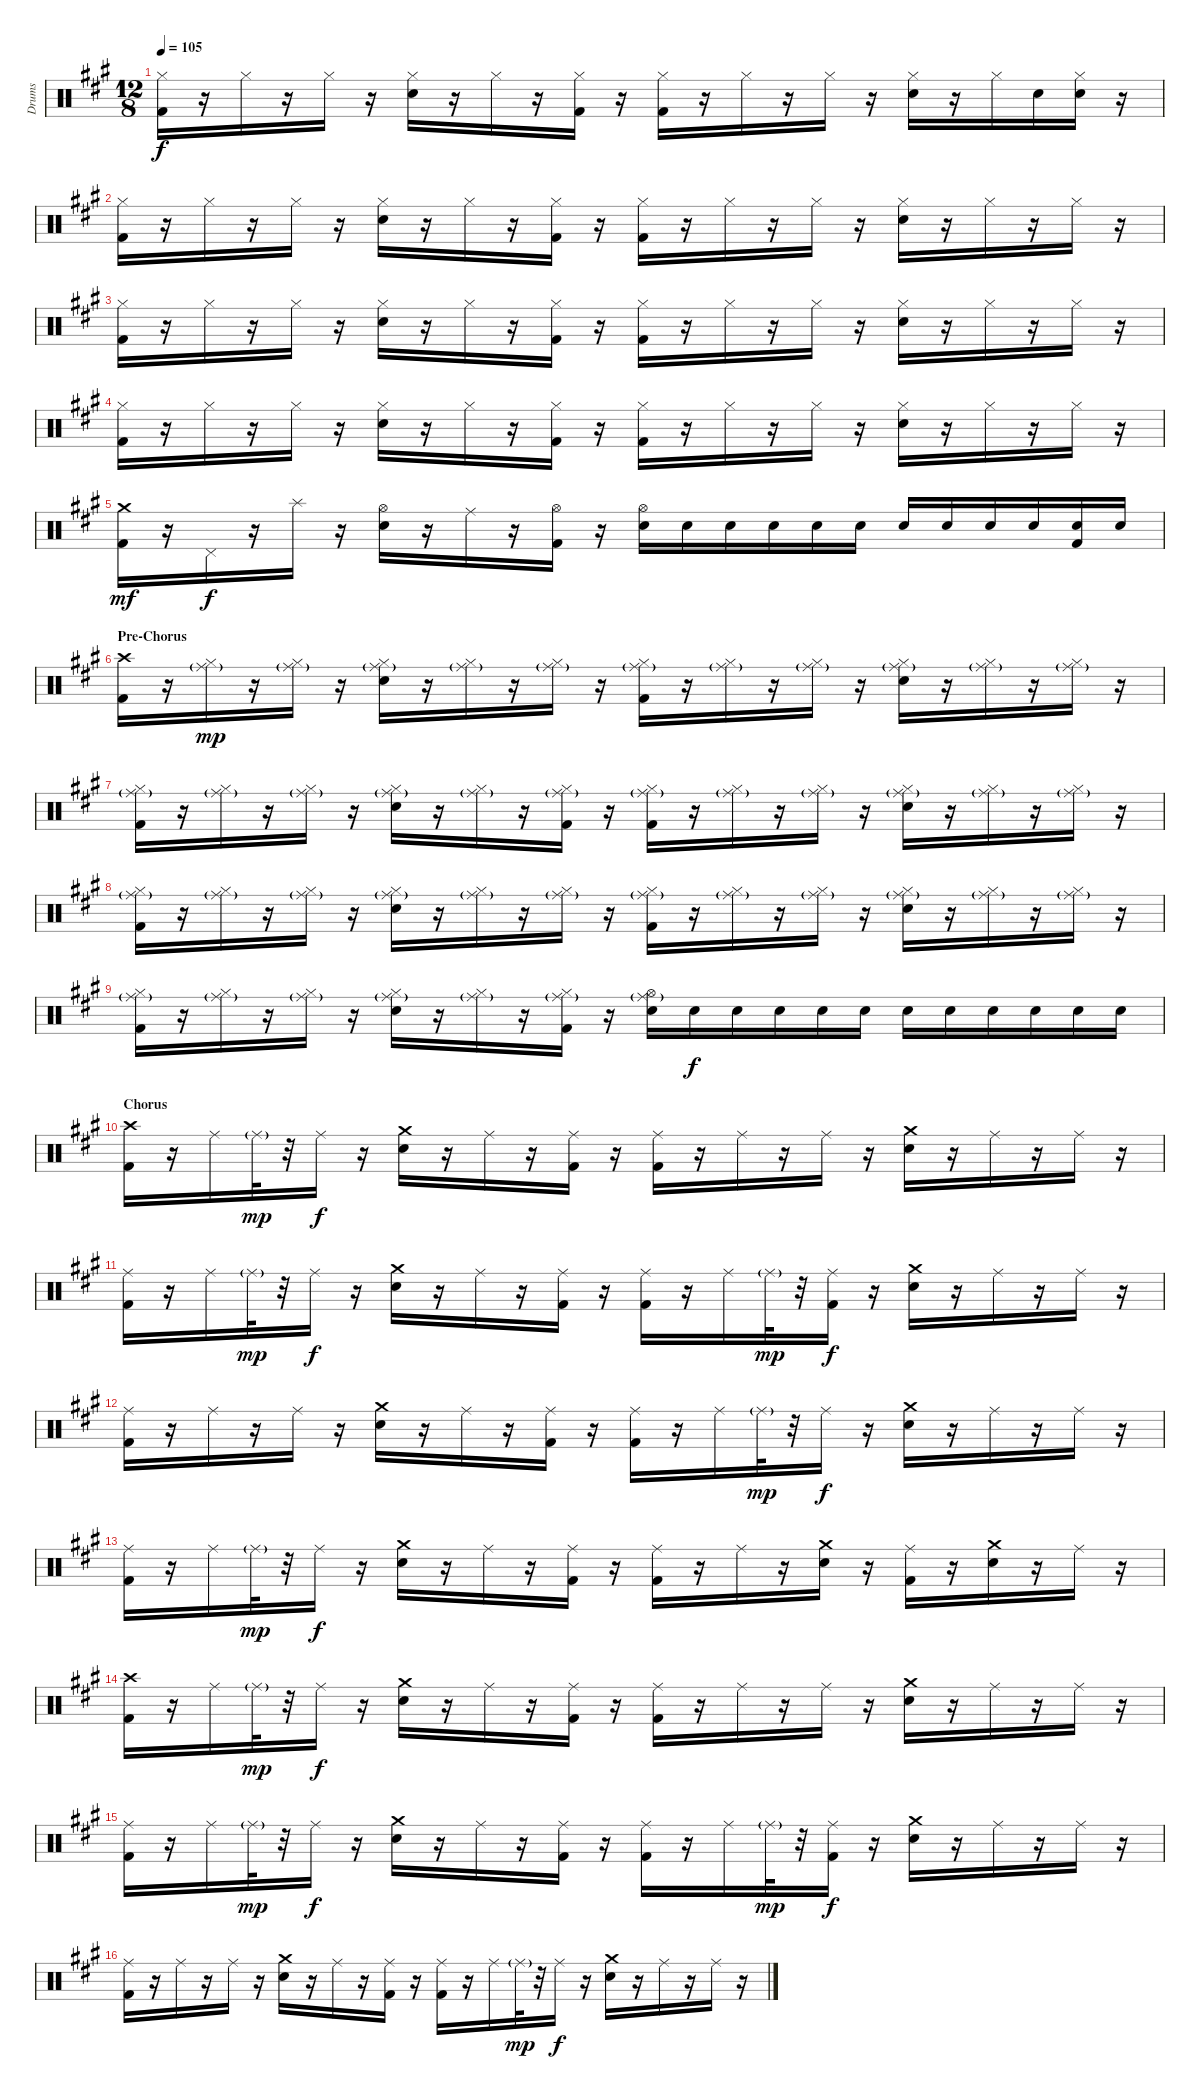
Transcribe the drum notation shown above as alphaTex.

\track ("Drums" "Drums") {instrument percussion}
\staff {score}
\articulation defaults
\ts (12 8)
\tempo 105
\clef neutral
\ks a
("Hi-Hat (closed)" "Kick (hit) 2").16{dy f} r.16 "Hi-Hat (closed)".16 r.16 "Hi-Hat (closed)".16 r.16 ("Hi-Hat (closed)" "Snare (hit) 2").16 r.16 "Hi-Hat (closed)".16 r.16 ("Hi-Hat (closed)" "Kick (hit) 2").16 r.16 ("Hi-Hat (closed)" "Kick (hit) 2").16 r.16 "Hi-Hat (closed)".16 r.16 "Hi-Hat (closed)".16 r.16 ("Hi-Hat (closed)" "Snare (hit) 2").16 r.16 "Hi-Hat (closed)".16 "Electric Snare (hit)".16 ("Hi-Hat (closed)" "Electric Snare (hit)").16 r.16 |
("Hi-Hat (closed)" "Kick (hit) 2").16 r.16 "Hi-Hat (closed)".16 r.16 "Hi-Hat (closed)".16 r.16 ("Hi-Hat (closed)" "Snare (hit) 2").16 r.16 "Hi-Hat (closed)".16 r.16 ("Hi-Hat (closed)" "Kick (hit) 2").16 r.16 ("Hi-Hat (closed)" "Kick (hit) 2").16 r.16 "Hi-Hat (closed)".16 r.16 "Hi-Hat (closed)".16 r.16 ("Hi-Hat (closed)" "Snare (hit) 2").16 r.16 "Hi-Hat (closed)".16 r.16 "Hi-Hat (closed)".16 r.16 |
("Hi-Hat (closed)" "Kick (hit) 2").16 r.16 "Hi-Hat (closed)".16 r.16 "Hi-Hat (closed)".16 r.16 ("Hi-Hat (closed)" "Snare (hit) 2").16 r.16 "Hi-Hat (closed)".16 r.16 ("Hi-Hat (closed)" "Kick (hit) 2").16 r.16 ("Hi-Hat (closed)" "Kick (hit) 2").16 r.16 "Hi-Hat (closed)".16 r.16 "Hi-Hat (closed)".16 r.16 ("Hi-Hat (closed)" "Snare (hit) 2").16 r.16 "Hi-Hat (closed)".16 r.16 "Hi-Hat (closed)".16 r.16 |
("Hi-Hat (closed)" "Kick (hit) 2").16 r.16 "Hi-Hat (closed)".16 r.16 "Hi-Hat (closed)".16 r.16 ("Hi-Hat (closed)" "Snare (hit) 2").16 r.16 "Hi-Hat (closed)".16 r.16 ("Hi-Hat (closed)" "Kick (hit) 2").16 r.16 ("Hi-Hat (closed)" "Kick (hit) 2").16 r.16 "Hi-Hat (closed)".16 r.16 "Hi-Hat (closed)".16 r.16 ("Hi-Hat (closed)" "Snare (hit) 2").16 r.16 "Hi-Hat (closed)".16 r.16 "Hi-Hat (closed)".16 r.16 |
("Crash medium (hit)" "Kick (hit) 2").16{dy mf} r.16 "Pedal Hi-Hat (hit)".16{dy f} r.16 "Splash (hit)".16 r.16 ("Hi-Hat (open)" "Snare (hit) 2").16 r.16 "Ride (middle)".16 r.16 ("Hi-Hat (open)" "Kick (hit) 2").16 r.16 ("Hi-Hat (open)" "Electric Snare (hit)").16 "Electric Snare (hit)".16 "Electric Snare (hit)".16 "Electric Snare (hit)".16 "Electric Snare (hit)".16 "Electric Snare (hit)".16 "Electric Snare (hit)".16 "Electric Snare (hit)".16 "Electric Snare (hit)".16 "Electric Snare (hit)".16 ("Electric Snare (hit)" "Kick (hit) 2").16 "Electric Snare (hit)".16 |
\section ("" "Pre-Chorus")
("Crash high (hit)" "Kick (hit) 2").16 r.16 ("Hi-Hat (closed)" "Ride (middle)"{g}).16{dy mp} r.16 ("Hi-Hat (closed)" "Ride (middle)"{g}).16 r.16 ("Hi-Hat (closed)" "Ride (middle)"{g} "Snare (hit) 2").16 r.16 ("Hi-Hat (closed)" "Ride (middle)"{g}).16 r.16 ("Hi-Hat (closed)" "Ride (middle)"{g}).16 r.16 ("Hi-Hat (closed)" "Ride (middle)"{g} "Kick (hit) 2").16 r.16 ("Hi-Hat (closed)" "Ride (middle)"{g}).16 r.16 ("Hi-Hat (closed)" "Ride (middle)"{g}).16 r.16 ("Hi-Hat (closed)" "Ride (middle)"{g} "Snare (hit) 2").16 r.16 ("Hi-Hat (closed)" "Ride (middle)"{g}).16 r.16 ("Hi-Hat (closed)" "Ride (middle)"{g}).16 r.16 |
("Hi-Hat (closed)" "Ride (middle)"{g} "Kick (hit) 2").16 r.16 ("Hi-Hat (closed)" "Ride (middle)"{g}).16 r.16 ("Hi-Hat (closed)" "Ride (middle)"{g}).16 r.16 ("Hi-Hat (closed)" "Ride (middle)"{g} "Snare (hit) 2").16 r.16 ("Hi-Hat (closed)" "Ride (middle)"{g}).16 r.16 ("Hi-Hat (closed)" "Ride (middle)"{g} "Kick (hit) 2").16 r.16 ("Hi-Hat (closed)" "Ride (middle)"{g} "Kick (hit) 2").16 r.16 ("Hi-Hat (closed)" "Ride (middle)"{g}).16 r.16 ("Hi-Hat (closed)" "Ride (middle)"{g}).16 r.16 ("Hi-Hat (closed)" "Ride (middle)"{g} "Snare (hit) 2").16 r.16 ("Hi-Hat (closed)" "Ride (middle)"{g}).16 r.16 ("Hi-Hat (closed)" "Ride (middle)"{g}).16 r.16 |
("Hi-Hat (closed)" "Ride (middle)"{g} "Kick (hit) 2").16 r.16 ("Hi-Hat (closed)" "Ride (middle)"{g}).16 r.16 ("Hi-Hat (closed)" "Ride (middle)"{g}).16 r.16 ("Hi-Hat (closed)" "Ride (middle)"{g} "Snare (hit) 2").16 r.16 ("Hi-Hat (closed)" "Ride (middle)"{g}).16 r.16 ("Hi-Hat (closed)" "Ride (middle)"{g}).16 r.16 ("Hi-Hat (closed)" "Ride (middle)"{g} "Kick (hit) 2").16 r.16 ("Hi-Hat (closed)" "Ride (middle)"{g}).16 r.16 ("Hi-Hat (closed)" "Ride (middle)"{g}).16 r.16 ("Hi-Hat (closed)" "Ride (middle)"{g} "Snare (hit) 2").16 r.16 ("Hi-Hat (closed)" "Ride (middle)"{g}).16 r.16 ("Hi-Hat (closed)" "Ride (middle)"{g}).16 r.16 |
("Hi-Hat (closed)" "Ride (middle)"{g} "Kick (hit) 2").16 r.16 ("Hi-Hat (closed)" "Ride (middle)"{g}).16 r.16 ("Hi-Hat (closed)" "Ride (middle)"{g}).16 r.16 ("Hi-Hat (closed)" "Ride (middle)"{g} "Snare (hit) 2").16 r.16 ("Hi-Hat (closed)" "Ride (middle)"{g}).16 r.16 ("Hi-Hat (closed)" "Ride (middle)"{g} "Kick (hit) 2").16 r.16 ("Hi-Hat (open)" "Ride (middle)"{g} "Electric Snare (hit)").16 "Electric Snare (hit)".16{dy f} "Electric Snare (hit)".16 "Electric Snare (hit)".16 "Electric Snare (hit)".16 "Electric Snare (hit)".16 "Electric Snare (hit)".16 "Electric Snare (hit)".16 "Electric Snare (hit)".16 "Electric Snare (hit)".16 "Electric Snare (hit)".16 "Electric Snare (hit)".16 |
\section ("" "Chorus")
("Crash high (hit)" "Kick (hit) 2").16 r.16 "Ride (middle)".16 "Ride (middle)"{g}.32{dy mp} r.32 "Ride (middle)".16{dy f} r.16 ("Crash medium (hit)" "Snare (hit) 2").16 r.16 "Ride (middle)".16 r.16 ("Ride (middle)" "Kick (hit) 2").16 r.16 ("Ride (middle)" "Kick (hit) 2").16 r.16 "Ride (middle)".16 r.16 "Ride (middle)".16 r.16 ("Crash medium (hit)" "Snare (hit) 2").16 r.16 "Ride (middle)".16 r.16 "Ride (middle)".16 r.16 |
("Ride (middle)" "Kick (hit) 2").16 r.16 "Ride (middle)".16 "Ride (middle)"{g}.32{dy mp} r.32 "Ride (middle)".16{dy f} r.16 ("Crash medium (hit)" "Snare (hit) 2").16 r.16 "Ride (middle)".16 r.16 ("Ride (middle)" "Kick (hit) 2").16 r.16 ("Ride (middle)" "Kick (hit) 2").16 r.16 "Ride (middle)".16 "Ride (middle)"{g}.32{dy mp} r.32 ("Ride (middle)" "Kick (hit) 2").16{dy f} r.16 ("Crash medium (hit)" "Snare (hit) 2").16 r.16 "Ride (middle)".16 r.16 "Ride (middle)".16 r.16 |
("Ride (middle)" "Kick (hit) 2").16 r.16 "Ride (middle)".16 r.16 "Ride (middle)".16 r.16 ("Crash medium (hit)" "Snare (hit) 2").16 r.16 "Ride (middle)".16 r.16 ("Ride (middle)" "Kick (hit) 2").16 r.16 ("Ride (middle)" "Kick (hit) 2").16 r.16 "Ride (middle)".16 "Ride (middle)"{g}.32{dy mp} r.32 "Ride (middle)".16{dy f} r.16 ("Crash medium (hit)" "Snare (hit) 2").16 r.16 "Ride (middle)".16 r.16 "Ride (middle)".16 r.16 |
("Ride (middle)" "Kick (hit) 2").16 r.16 "Ride (middle)".16 "Ride (middle)"{g}.32{dy mp} r.32 "Ride (middle)".16{dy f} r.16 ("Crash medium (hit)" "Snare (hit) 2").16 r.16 "Ride (middle)".16 r.16 ("Ride (middle)" "Kick (hit) 2").16 r.16 ("Ride (middle)" "Kick (hit) 2").16 r.16 "Ride (middle)".16 r.16 ("Crash medium (hit)" "Snare (hit) 2").16 r.16 ("Ride (middle)" "Kick (hit) 2").16 r.16 ("Crash medium (hit)" "Snare (hit) 2").16 r.16 "Ride (middle)".16 r.16 |
("Crash high (hit)" "Kick (hit) 2").16 r.16 "Ride (middle)".16 "Ride (middle)"{g}.32{dy mp} r.32 "Ride (middle)".16{dy f} r.16 ("Crash medium (hit)" "Snare (hit) 2").16 r.16 "Ride (middle)".16 r.16 ("Ride (middle)" "Kick (hit) 2").16 r.16 ("Ride (middle)" "Kick (hit) 2").16 r.16 "Ride (middle)".16 r.16 "Ride (middle)".16 r.16 ("Crash medium (hit)" "Snare (hit) 2").16 r.16 "Ride (middle)".16 r.16 "Ride (middle)".16 r.16 |
("Ride (middle)" "Kick (hit) 2").16 r.16 "Ride (middle)".16 "Ride (middle)"{g}.32{dy mp} r.32 "Ride (middle)".16{dy f} r.16 ("Crash medium (hit)" "Snare (hit) 2").16 r.16 "Ride (middle)".16 r.16 ("Ride (middle)" "Kick (hit) 2").16 r.16 ("Ride (middle)" "Kick (hit) 2").16 r.16 "Ride (middle)".16 "Ride (middle)"{g}.32{dy mp} r.32 ("Ride (middle)" "Kick (hit) 2").16{dy f} r.16 ("Crash medium (hit)" "Snare (hit) 2").16 r.16 "Ride (middle)".16 r.16 "Ride (middle)".16 r.16 |
("Ride (middle)" "Kick (hit) 2").16 r.16 "Ride (middle)".16 r.16 "Ride (middle)".16 r.16 ("Crash medium (hit)" "Snare (hit) 2").16 r.16 "Ride (middle)".16 r.16 ("Ride (middle)" "Kick (hit) 2").16 r.16 ("Ride (middle)" "Kick (hit) 2").16 r.16 "Ride (middle)".16 "Ride (middle)"{g}.32{dy mp} r.32 "Ride (middle)".16{dy f} r.16 ("Crash medium (hit)" "Snare (hit) 2").16 r.16 "Ride (middle)".16 r.16 "Ride (middle)".16 r.16
